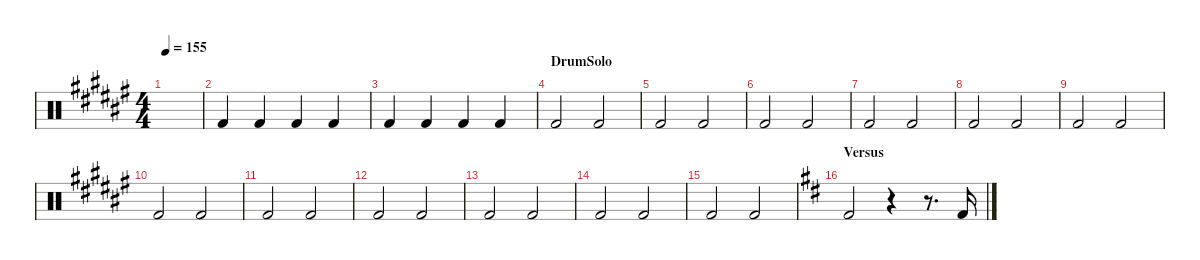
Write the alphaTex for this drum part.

\hideDynamics
\bracketExtendMode nobrackets
\singleTrackTrackNamePolicy hidden
\multiTrackTrackNamePolicy hidden
\otherSystemsTrackNameOrientation horizontal
\track ("Kick" "Drums") {instrument percussion}
\staff {score}
\articulation defaults
\ts (4 4)
\tempo 155
\clef neutral
\ks f#
|
"Kick (hit) 2"{acc forcenatural}.4{dy mp beam Up} "Kick (hit) 2"{acc forcenatural}.4{beam Up} "Kick (hit) 2"{acc forcenatural}.4{beam Up} "Kick (hit) 2"{acc forcenatural}.4{beam Up} |
"Kick (hit) 2"{acc forcenatural}.4{beam Up} "Kick (hit) 2"{acc forcenatural}.4{beam Up} "Kick (hit) 2"{acc forcenatural}.4{beam Up} "Kick (hit) 2"{acc forcenatural}.4{beam Up} |
\section ("" "DrumSolo")
"Kick (hit) 2"{acc forcenatural}.2{beam Up} "Kick (hit) 2"{acc forcenatural}.2{beam Up} |
"Kick (hit) 2"{acc forcenatural}.2{beam Up} "Kick (hit) 2"{acc forcenatural}.2{beam Up} |
"Kick (hit) 2"{acc forcenatural}.2{beam Up} "Kick (hit) 2"{acc forcenatural}.2{beam Up} |
"Kick (hit) 2"{acc forcenatural}.2{beam Up} "Kick (hit) 2"{acc forcenatural}.2{beam Up} |
"Kick (hit) 2"{acc forcenatural}.2{beam Up} "Kick (hit) 2"{acc forcenatural}.2{beam Up} |
"Kick (hit) 2"{acc forcenatural}.2{beam Up} "Kick (hit) 2"{acc forcenatural}.2{beam Up} |
"Kick (hit) 2"{acc forcenatural}.2{beam Up} "Kick (hit) 2"{acc forcenatural}.2{beam Up} |
"Kick (hit) 2"{acc forcenatural}.2{beam Up} "Kick (hit) 2"{acc forcenatural}.2{beam Up} |
"Kick (hit) 2"{acc forcenatural}.2{beam Up} "Kick (hit) 2"{acc forcenatural}.2{beam Up} |
"Kick (hit) 2"{acc forcenatural}.2{beam Up} "Kick (hit) 2"{acc forcenatural}.2{beam Up} |
"Kick (hit) 2"{acc forcenatural}.2{beam Up} "Kick (hit) 2"{acc forcenatural}.2{beam Up} |
"Kick (hit) 2"{acc forcenatural}.2{beam Up} "Kick (hit) 2"{acc forcenatural}.2{beam Up} |
\section ("" "Versus")
\ks d "Kick (hit) 2"{acc forcenatural}.2{dy f beam Up}
r.4{beam Up} r.8{d beam Up} "Kick (hit) 2"{acc forcenatural}.16{dy mf beam Up}
